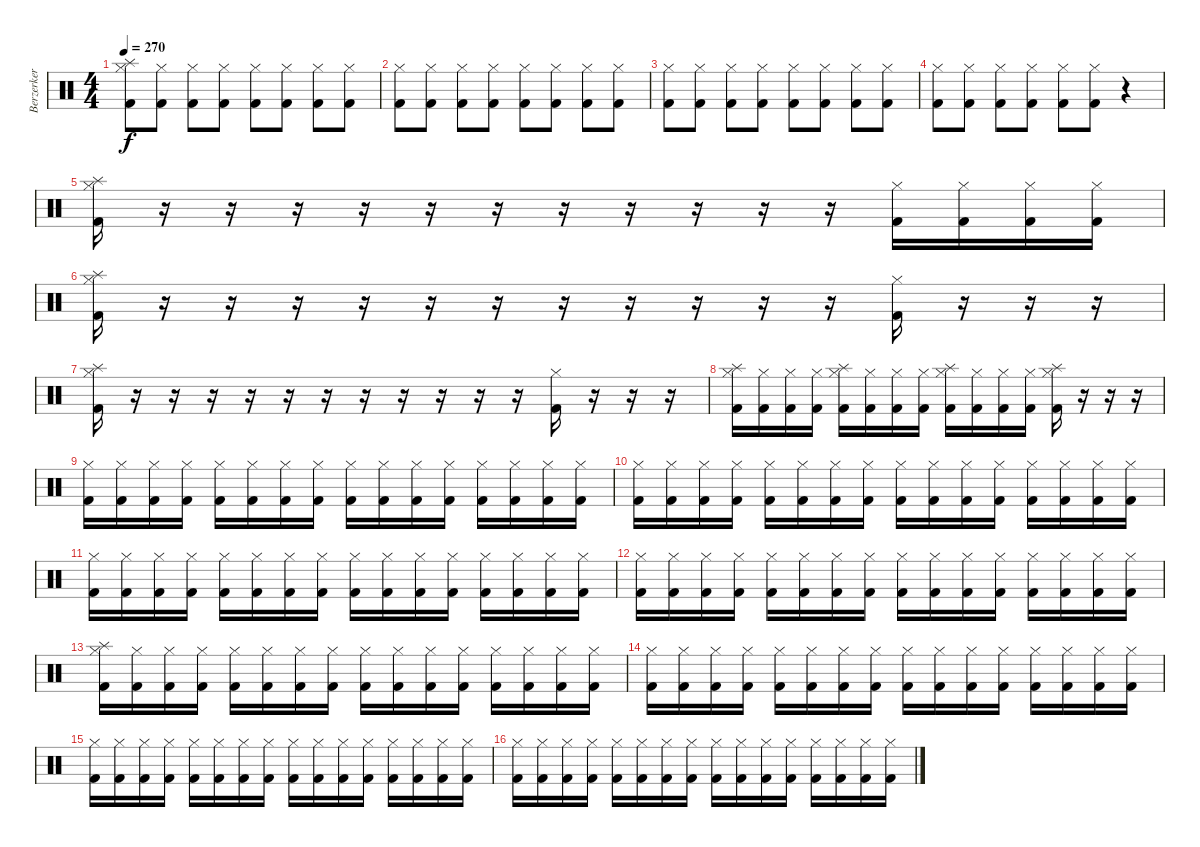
\track ("Berzerker Drum Machine" "Berzerker ") {instrument percussion}
\staff {score}
\articulation defaults
\ts (4 4)
\tempo 270
\clef neutral
\ks c
("Splash (hit)" "Kick (hit) 2" "Hi-Hat (closed)").8{dy f} ("Kick (hit) 2" "Hi-Hat (closed)").8 ("Kick (hit) 2" "Hi-Hat (closed)").8 ("Kick (hit) 2" "Hi-Hat (closed)").8 ("Kick (hit) 2" "Hi-Hat (closed)").8 ("Kick (hit) 2" "Hi-Hat (closed)").8 ("Kick (hit) 2" "Hi-Hat (closed)").8 ("Kick (hit) 2" "Hi-Hat (closed)").8 |
("Kick (hit) 2" "Hi-Hat (closed)").8 ("Kick (hit) 2" "Hi-Hat (closed)").8 ("Kick (hit) 2" "Hi-Hat (closed)").8 ("Kick (hit) 2" "Hi-Hat (closed)").8 ("Kick (hit) 2" "Hi-Hat (closed)").8 ("Kick (hit) 2" "Hi-Hat (closed)").8 ("Kick (hit) 2" "Hi-Hat (closed)").8 ("Kick (hit) 2" "Hi-Hat (closed)").8 |
("Kick (hit) 2" "Hi-Hat (closed)").8 ("Kick (hit) 2" "Hi-Hat (closed)").8 ("Kick (hit) 2" "Hi-Hat (closed)").8 ("Kick (hit) 2" "Hi-Hat (closed)").8 ("Kick (hit) 2" "Hi-Hat (closed)").8 ("Kick (hit) 2" "Hi-Hat (closed)").8 ("Kick (hit) 2" "Hi-Hat (closed)").8 ("Kick (hit) 2" "Hi-Hat (closed)").8 |
("Kick (hit) 2" "Hi-Hat (closed)").8 ("Kick (hit) 2" "Hi-Hat (closed)").8 ("Kick (hit) 2" "Hi-Hat (closed)").8 ("Kick (hit) 2" "Hi-Hat (closed)").8 ("Kick (hit) 2" "Hi-Hat (closed)").8 ("Kick (hit) 2" "Hi-Hat (closed)").8 r.4 |
("Splash (hit)" "Kick (hit) 2" "Hi-Hat (closed)").16 r.16 r.16 r.16 r.16 r.16 r.16 r.16 r.16 r.16 r.16 r.16 ("Kick (hit) 2" "Hi-Hat (closed)").16 ("Kick (hit) 2" "Hi-Hat (closed)").16 ("Kick (hit) 2" "Hi-Hat (closed)").16 ("Kick (hit) 2" "Hi-Hat (closed)").16 |
("Splash (hit)" "Kick (hit) 2" "Hi-Hat (closed)").16 r.16 r.16 r.16 r.16 r.16 r.16 r.16 r.16 r.16 r.16 r.16 ("Kick (hit) 2" "Hi-Hat (closed)").16 r.16 r.16 r.16 |
("Splash (hit)" "Kick (hit) 2" "Hi-Hat (closed)").16 r.16 r.16 r.16 r.16 r.16 r.16 r.16 r.16 r.16 r.16 r.16 ("Kick (hit) 2" "Hi-Hat (closed)").16 r.16 r.16 r.16 |
("Splash (hit)" "Kick (hit) 2" "Hi-Hat (closed)").16 ("Kick (hit) 2" "Hi-Hat (closed)").16 ("Kick (hit) 2" "Hi-Hat (closed)").16 ("Kick (hit) 2" "Hi-Hat (closed)").16 ("Splash (hit)" "Kick (hit) 2" "Hi-Hat (closed)").16 ("Kick (hit) 2" "Hi-Hat (closed)").16 ("Kick (hit) 2" "Hi-Hat (closed)").16 ("Kick (hit) 2" "Hi-Hat (closed)").16 ("Splash (hit)" "Kick (hit) 2" "Hi-Hat (closed)").16 ("Kick (hit) 2" "Hi-Hat (closed)").16 ("Kick (hit) 2" "Hi-Hat (closed)").16 ("Kick (hit) 2" "Hi-Hat (closed)").16 ("Splash (hit)" "Kick (hit) 2" "Hi-Hat (closed)").16 r.16 r.16 r.16 |
("Kick (hit) 2" "Hi-Hat (closed)").16 ("Kick (hit) 2" "Hi-Hat (closed)").16 ("Kick (hit) 2" "Hi-Hat (closed)").16 ("Kick (hit) 2" "Hi-Hat (closed)").16 ("Kick (hit) 2" "Hi-Hat (closed)").16 ("Kick (hit) 2" "Hi-Hat (closed)").16 ("Kick (hit) 2" "Hi-Hat (closed)").16 ("Kick (hit) 2" "Hi-Hat (closed)").16 ("Kick (hit) 2" "Hi-Hat (closed)").16 ("Kick (hit) 2" "Hi-Hat (closed)").16 ("Kick (hit) 2" "Hi-Hat (closed)").16 ("Kick (hit) 2" "Hi-Hat (closed)").16 ("Kick (hit) 2" "Hi-Hat (closed)").16 ("Kick (hit) 2" "Hi-Hat (closed)").16 ("Kick (hit) 2" "Hi-Hat (closed)").16 ("Kick (hit) 2" "Hi-Hat (closed)").16 |
("Kick (hit) 2" "Hi-Hat (closed)").16 ("Kick (hit) 2" "Hi-Hat (closed)").16 ("Kick (hit) 2" "Hi-Hat (closed)").16 ("Kick (hit) 2" "Hi-Hat (closed)").16 ("Kick (hit) 2" "Hi-Hat (closed)").16 ("Kick (hit) 2" "Hi-Hat (closed)").16 ("Kick (hit) 2" "Hi-Hat (closed)").16 ("Kick (hit) 2" "Hi-Hat (closed)").16 ("Kick (hit) 2" "Hi-Hat (closed)").16 ("Kick (hit) 2" "Hi-Hat (closed)").16 ("Kick (hit) 2" "Hi-Hat (closed)").16 ("Kick (hit) 2" "Hi-Hat (closed)").16 ("Kick (hit) 2" "Hi-Hat (closed)").16 ("Kick (hit) 2" "Hi-Hat (closed)").16 ("Kick (hit) 2" "Hi-Hat (closed)").16 ("Kick (hit) 2" "Hi-Hat (closed)").16 |
("Kick (hit) 2" "Hi-Hat (closed)").16 ("Kick (hit) 2" "Hi-Hat (closed)").16 ("Kick (hit) 2" "Hi-Hat (closed)").16 ("Kick (hit) 2" "Hi-Hat (closed)").16 ("Kick (hit) 2" "Hi-Hat (closed)").16 ("Kick (hit) 2" "Hi-Hat (closed)").16 ("Kick (hit) 2" "Hi-Hat (closed)").16 ("Kick (hit) 2" "Hi-Hat (closed)").16 ("Kick (hit) 2" "Hi-Hat (closed)").16 ("Kick (hit) 2" "Hi-Hat (closed)").16 ("Kick (hit) 2" "Hi-Hat (closed)").16 ("Kick (hit) 2" "Hi-Hat (closed)").16 ("Kick (hit) 2" "Hi-Hat (closed)").16 ("Kick (hit) 2" "Hi-Hat (closed)").16 ("Kick (hit) 2" "Hi-Hat (closed)").16 ("Kick (hit) 2" "Hi-Hat (closed)").16 |
("Kick (hit) 2" "Hi-Hat (closed)").16 ("Kick (hit) 2" "Hi-Hat (closed)").16 ("Kick (hit) 2" "Hi-Hat (closed)").16 ("Kick (hit) 2" "Hi-Hat (closed)").16 ("Kick (hit) 2" "Hi-Hat (closed)").16 ("Kick (hit) 2" "Hi-Hat (closed)").16 ("Kick (hit) 2" "Hi-Hat (closed)").16 ("Kick (hit) 2" "Hi-Hat (closed)").16 ("Kick (hit) 2" "Hi-Hat (closed)").16 ("Kick (hit) 2" "Hi-Hat (closed)").16 ("Kick (hit) 2" "Hi-Hat (closed)").16 ("Kick (hit) 2" "Hi-Hat (closed)").16 ("Kick (hit) 2" "Hi-Hat (closed)").16 ("Kick (hit) 2" "Hi-Hat (closed)").16 ("Kick (hit) 2" "Hi-Hat (closed)").16 ("Kick (hit) 2" "Hi-Hat (closed)").16 |
("Splash (hit)" "Kick (hit) 2" "Hi-Hat (closed)").16 ("Kick (hit) 2" "Hi-Hat (closed)").16 ("Kick (hit) 2" "Hi-Hat (closed)").16 ("Kick (hit) 2" "Hi-Hat (closed)").16 ("Kick (hit) 2" "Hi-Hat (closed)").16 ("Kick (hit) 2" "Hi-Hat (closed)").16 ("Kick (hit) 2" "Hi-Hat (closed)").16 ("Kick (hit) 2" "Hi-Hat (closed)").16 ("Kick (hit) 2" "Hi-Hat (closed)").16 ("Kick (hit) 2" "Hi-Hat (closed)").16 ("Kick (hit) 2" "Hi-Hat (closed)").16 ("Kick (hit) 2" "Hi-Hat (closed)").16 ("Kick (hit) 2" "Hi-Hat (closed)").16 ("Kick (hit) 2" "Hi-Hat (closed)").16 ("Kick (hit) 2" "Hi-Hat (closed)").16 ("Kick (hit) 2" "Hi-Hat (closed)").16 |
("Kick (hit) 2" "Hi-Hat (closed)").16 ("Kick (hit) 2" "Hi-Hat (closed)").16 ("Kick (hit) 2" "Hi-Hat (closed)").16 ("Kick (hit) 2" "Hi-Hat (closed)").16 ("Kick (hit) 2" "Hi-Hat (closed)").16 ("Kick (hit) 2" "Hi-Hat (closed)").16 ("Kick (hit) 2" "Hi-Hat (closed)").16 ("Kick (hit) 2" "Hi-Hat (closed)").16 ("Kick (hit) 2" "Hi-Hat (closed)").16 ("Kick (hit) 2" "Hi-Hat (closed)").16 ("Kick (hit) 2" "Hi-Hat (closed)").16 ("Kick (hit) 2" "Hi-Hat (closed)").16 ("Kick (hit) 2" "Hi-Hat (closed)").16 ("Kick (hit) 2" "Hi-Hat (closed)").16 ("Kick (hit) 2" "Hi-Hat (closed)").16 ("Kick (hit) 2" "Hi-Hat (closed)").16 |
("Kick (hit) 2" "Hi-Hat (closed)").16 ("Kick (hit) 2" "Hi-Hat (closed)").16 ("Kick (hit) 2" "Hi-Hat (closed)").16 ("Kick (hit) 2" "Hi-Hat (closed)").16 ("Kick (hit) 2" "Hi-Hat (closed)").16 ("Kick (hit) 2" "Hi-Hat (closed)").16 ("Kick (hit) 2" "Hi-Hat (closed)").16 ("Kick (hit) 2" "Hi-Hat (closed)").16 ("Kick (hit) 2" "Hi-Hat (closed)").16 ("Kick (hit) 2" "Hi-Hat (closed)").16 ("Kick (hit) 2" "Hi-Hat (closed)").16 ("Kick (hit) 2" "Hi-Hat (closed)").16 ("Kick (hit) 2" "Hi-Hat (closed)").16 ("Kick (hit) 2" "Hi-Hat (closed)").16 ("Kick (hit) 2" "Hi-Hat (closed)").16 ("Kick (hit) 2" "Hi-Hat (closed)").16 |
("Kick (hit) 2" "Hi-Hat (closed)").16 ("Kick (hit) 2" "Hi-Hat (closed)").16 ("Kick (hit) 2" "Hi-Hat (closed)").16 ("Kick (hit) 2" "Hi-Hat (closed)").16 ("Kick (hit) 2" "Hi-Hat (closed)").16 ("Kick (hit) 2" "Hi-Hat (closed)").16 ("Kick (hit) 2" "Hi-Hat (closed)").16 ("Kick (hit) 2" "Hi-Hat (closed)").16 ("Kick (hit) 2" "Hi-Hat (closed)").16 ("Kick (hit) 2" "Hi-Hat (closed)").16 ("Kick (hit) 2" "Hi-Hat (closed)").16 ("Kick (hit) 2" "Hi-Hat (closed)").16 ("Kick (hit) 2" "Hi-Hat (closed)").16 ("Kick (hit) 2" "Hi-Hat (closed)").16 ("Kick (hit) 2" "Hi-Hat (closed)").16 ("Kick (hit) 2" "Hi-Hat (closed)").16
